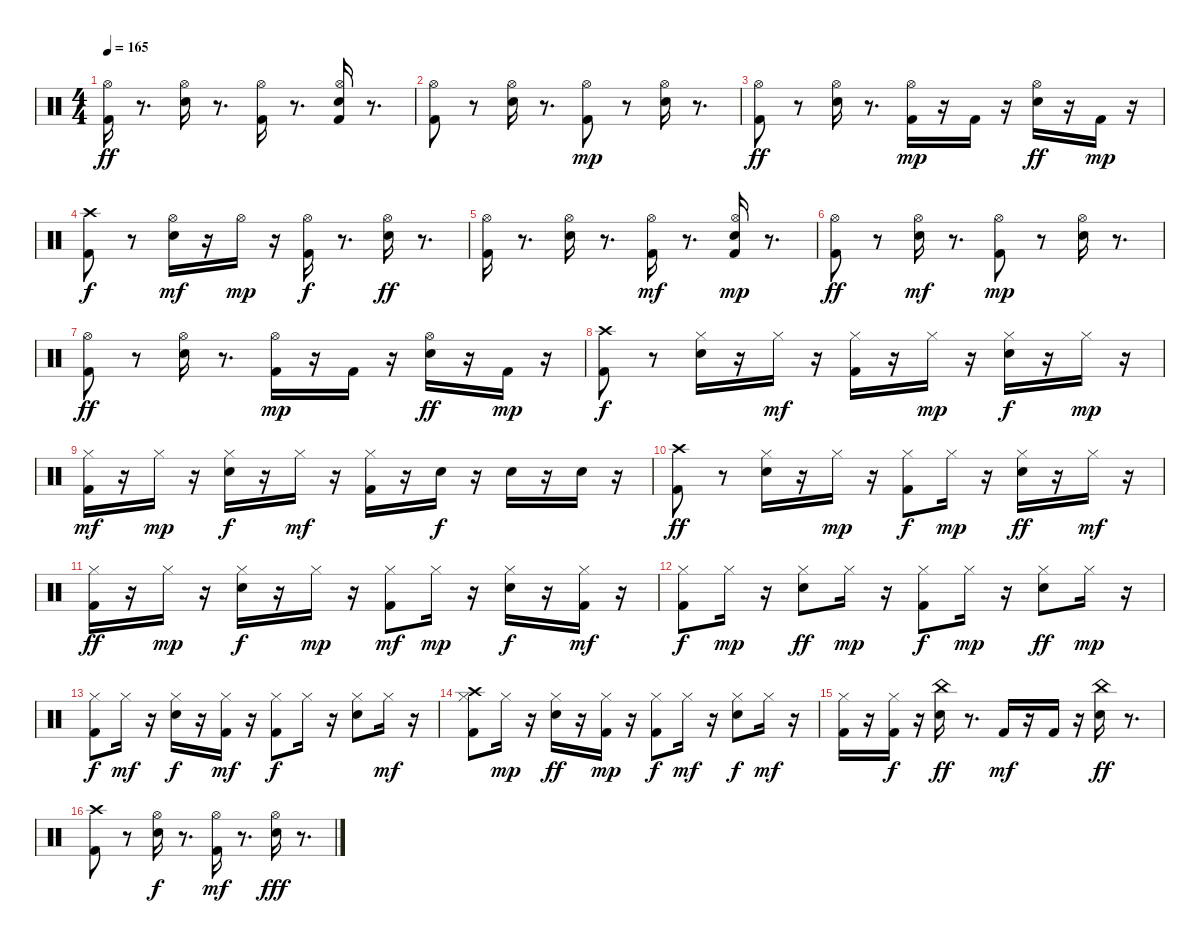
\track "" {instrument percussion}
\staff {score}
\articulation defaults
\ts (4 4)
\tempo 165
\clef neutral
\ks c
("Kick (hit) 2" "Hi-Hat (open)").16{dy ff} r.8{d} ("Hi-Hat (open)" "Electric Snare (hit)").16 r.8{d} ("Kick (hit) 2" "Hi-Hat (open)").16 r.8{d} ("Kick (hit) 2" "Hi-Hat (open)" "Electric Snare (hit)").16 r.8{d} |
("Kick (hit) 2" "Hi-Hat (open)").8 r.8 ("Electric Snare (hit)" "Hi-Hat (open)").16 r.8{d} ("Kick (hit) 2" "Hi-Hat (open)").8{dy mp} r.8 ("Hi-Hat (open)" "Electric Snare (hit)").16 r.8{d} |
("Hi-Hat (open)" "Kick (hit) 2").8{dy ff} r.8 ("Electric Snare (hit)" "Hi-Hat (open)").16 r.8{d} ("Kick (hit) 2" "Hi-Hat (open)").16{dy mp} r.16 "Kick (hit) 2".16 r.16 ("Electric Snare (hit)" "Hi-Hat (open)").16{dy ff} r.16 "Kick (hit) 2".16{dy mp} r.16 |
("Crash high (hit)" "Kick (hit) 2").8{dy f} r.8 ("Electric Snare (hit)" "Hi-Hat (open)").16{dy mf} r.16 "Hi-Hat (open)".16{dy mp} r.16 ("Kick (hit) 2" "Hi-Hat (open)").16{dy f} r.8{d} ("Electric Snare (hit)" "Hi-Hat (open)").16{dy ff} r.8{d} |
("Kick (hit) 2" "Hi-Hat (open)").16 r.8{d} ("Hi-Hat (open)" "Electric Snare (hit)").16 r.8{d} ("Hi-Hat (open)" "Kick (hit) 2").16{dy mf} r.8{d} ("Hi-Hat (open)" "Kick (hit) 2" "Electric Snare (hit)").16{dy mp} r.8{d} |
("Kick (hit) 2" "Hi-Hat (open)").8{dy ff} r.8 ("Hi-Hat (open)" "Electric Snare (hit)").16{dy mf} r.8{d} ("Kick (hit) 2" "Hi-Hat (open)").8{dy mp} r.8 ("Electric Snare (hit)" "Hi-Hat (open)").16 r.8{d} |
("Kick (hit) 2" "Hi-Hat (open)").8{dy ff} r.8 ("Hi-Hat (open)" "Electric Snare (hit)").16 r.8{d} ("Kick (hit) 2" "Hi-Hat (open)").16{dy mp} r.16 "Kick (hit) 2".16 r.16 ("Hi-Hat (open)" "Electric Snare (hit)").16{dy ff} r.16 "Kick (hit) 2".16{dy mp} r.16 |
("Kick (hit) 2" "Crash high (hit)").8{dy f} r.8 ("Electric Snare (hit)" "Hi-Hat (closed)").16 r.16 "Hi-Hat (closed)".16{dy mf} r.16 ("Hi-Hat (closed)" "Kick (hit) 2").16 r.16 "Hi-Hat (closed)".16{dy mp} r.16 ("Hi-Hat (closed)" "Electric Snare (hit)").16{dy f} r.16 "Hi-Hat (closed)".16{dy mp} r.16 |
("Hi-Hat (closed)" "Kick (hit) 2").16{dy mf} r.16 "Hi-Hat (closed)".16{dy mp} r.16 ("Electric Snare (hit)" "Hi-Hat (closed)").16{dy f} r.16 "Hi-Hat (closed)".16{dy mf} r.16 ("Kick (hit) 2" "Hi-Hat (closed)").16 r.16 "Electric Snare (hit)".16{dy f} r.16 "Electric Snare (hit)".16 r.16 "Electric Snare (hit)".16 r.16 |
("Crash high (hit)" "Kick (hit) 2").8{dy ff} r.8 ("Electric Snare (hit)" "Hi-Hat (closed)").16 r.16 "Hi-Hat (closed)".16{dy mp} r.16 ("Kick (hit) 2" "Hi-Hat (closed)").8{dy f} "Hi-Hat (closed)".16{dy mp} r.16 ("Electric Snare (hit)" "Hi-Hat (closed)").16{dy ff} r.16 "Hi-Hat (closed)".16{dy mf} r.16 |
("Kick (hit) 2" "Hi-Hat (closed)").16{dy ff} r.16 "Hi-Hat (closed)".16{dy mp} r.16 ("Electric Snare (hit)" "Hi-Hat (closed)").16{dy f} r.16 "Hi-Hat (closed)".16{dy mp} r.16 ("Kick (hit) 2" "Hi-Hat (closed)").8{dy mf} "Hi-Hat (closed)".16{dy mp} r.16 ("Hi-Hat (closed)" "Electric Snare (hit)").16{dy f} r.16 ("Hi-Hat (closed)" "Kick (hit) 2").16{dy mf} r.16 |
("Hi-Hat (closed)" "Kick (hit) 2").8{dy f} "Hi-Hat (closed)".16{dy mp} r.16 ("Hi-Hat (closed)" "Electric Snare (hit)").8{dy ff} "Hi-Hat (closed)".16{dy mp} r.16 ("Hi-Hat (closed)" "Kick (hit) 2").8{dy f} "Hi-Hat (closed)".16{dy mp} r.16 ("Hi-Hat (closed)" "Electric Snare (hit)").8{dy ff} "Hi-Hat (closed)".16{dy mp} r.16 |
("Kick (hit) 2" "Hi-Hat (closed)").8{dy f} "Hi-Hat (closed)".16{dy mf} r.16 ("Electric Snare (hit)" "Hi-Hat (closed)").16{dy f} r.16 ("Hi-Hat (closed)" "Kick (hit) 2").16{dy mf} r.16 ("Kick (hit) 2" "Hi-Hat (closed)").8{dy f} "Hi-Hat (closed)".16 r.16 ("Electric Snare (hit)" "Hi-Hat (closed)").8 "Hi-Hat (closed)".16{dy mf} r.16 |
("Hi-Hat (closed)" "Kick (hit) 2" "Crash high (hit)").8 "Hi-Hat (closed)".16{dy mp} r.16 ("Electric Snare (hit)" "Hi-Hat (closed)").16{dy ff} r.16 ("Hi-Hat (closed)" "Kick (hit) 2").16{dy mp} r.16 ("Kick (hit) 2" "Hi-Hat (closed)").8{dy f} "Hi-Hat (closed)".16{dy mf} r.16 ("Electric Snare (hit)" "Hi-Hat (closed)").8{dy f} "Hi-Hat (closed)".16{dy mf} r.16 |
("Kick (hit) 2" "Hi-Hat (closed)").16 r.16 ("Kick (hit) 2" "Hi-Hat (closed)").16{dy f} r.16 ("China (hit)" "Electric Snare (hit)").16{dy ff} r.8{d} "Kick (hit) 2".16{dy mf} r.16 "Kick (hit) 2".16 r.16 ("Electric Snare (hit)" "China (hit)").16{dy ff} r.8{d} |
("Crash high (hit)" "Kick (hit) 2").8 r.8 ("Hi-Hat (open)" "Electric Snare (hit)").16{dy f} r.8{d} ("Hi-Hat (open)" "Kick (hit) 2").16{dy mf} r.8{d} ("Hi-Hat (open)" "Electric Snare (hit)").16{dy fff} r.8{d}
